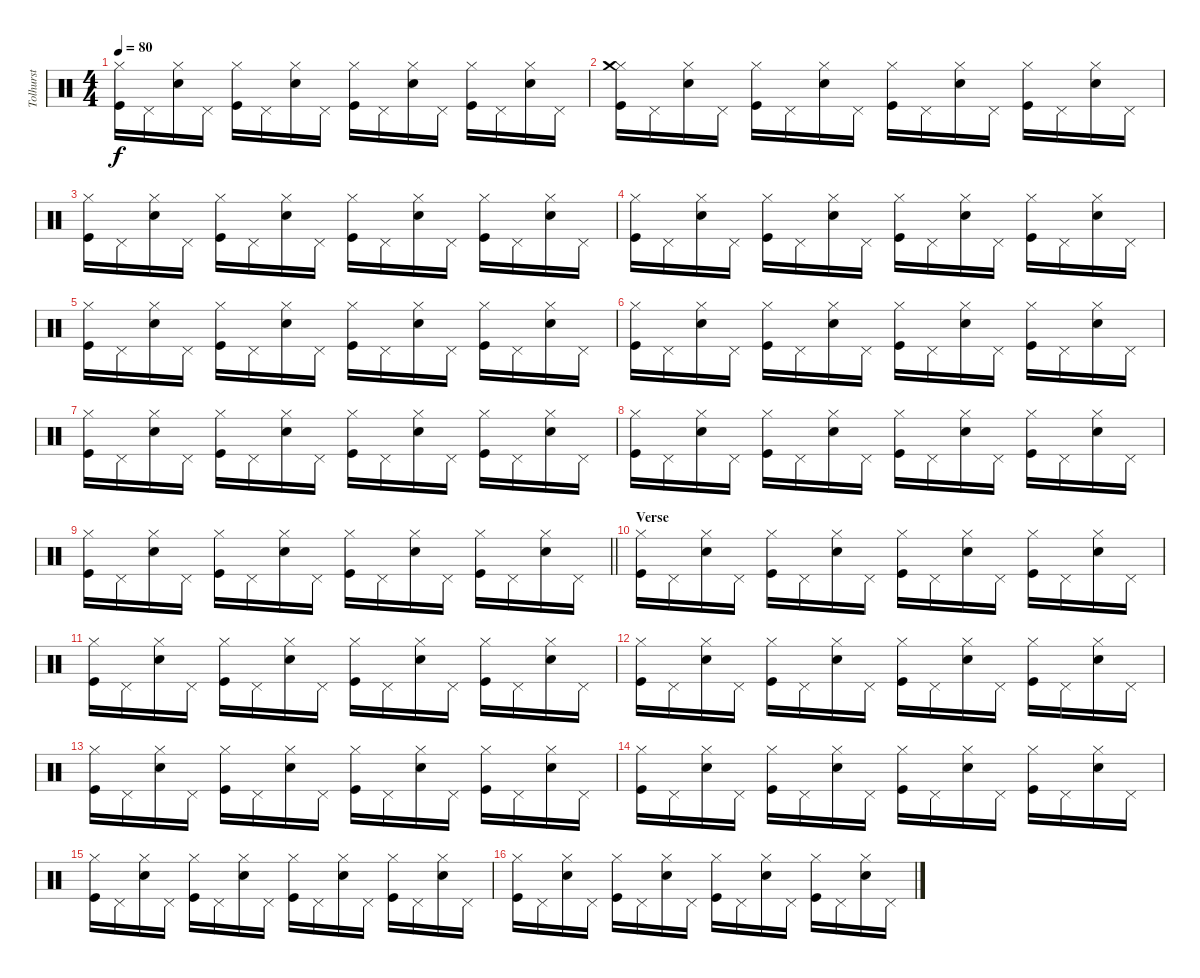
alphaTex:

\track ("Tolhurst" "Tolhurst") {instrument percussion}
\staff {score}
\articulation defaults
\ts (4 4)
\tempo 80
\clef neutral
\ks c
("Kick (hit)" "Hi-Hat (closed)").16{dy f} "Pedal Hi-Hat (hit)".16 ("Snare (hit) 2" "Hi-Hat (closed)").16 "Pedal Hi-Hat (hit)".16 ("Kick (hit)" "Hi-Hat (closed)").16 "Pedal Hi-Hat (hit)".16 ("Snare (hit) 2" "Hi-Hat (closed)").16 "Pedal Hi-Hat (hit)".16 ("Kick (hit)" "Hi-Hat (closed)").16 "Pedal Hi-Hat (hit)".16 ("Snare (hit) 2" "Hi-Hat (closed)").16 "Pedal Hi-Hat (hit)".16 ("Kick (hit)" "Hi-Hat (closed)").16 "Pedal Hi-Hat (hit)".16 ("Snare (hit) 2" "Hi-Hat (closed)").16 "Pedal Hi-Hat (hit)".16 |
("Kick (hit)" "Hi-Hat (closed)" "Crash medium (hit)").16 "Pedal Hi-Hat (hit)".16 ("Snare (hit) 2" "Hi-Hat (closed)").16 "Pedal Hi-Hat (hit)".16 ("Kick (hit)" "Hi-Hat (closed)").16 "Pedal Hi-Hat (hit)".16 ("Snare (hit) 2" "Hi-Hat (closed)").16 "Pedal Hi-Hat (hit)".16 ("Kick (hit)" "Hi-Hat (closed)").16 "Pedal Hi-Hat (hit)".16 ("Snare (hit) 2" "Hi-Hat (closed)").16 "Pedal Hi-Hat (hit)".16 ("Kick (hit)" "Hi-Hat (closed)").16 "Pedal Hi-Hat (hit)".16 ("Snare (hit) 2" "Hi-Hat (closed)").16 "Pedal Hi-Hat (hit)".16 |
("Kick (hit)" "Hi-Hat (closed)").16 "Pedal Hi-Hat (hit)".16 ("Snare (hit) 2" "Hi-Hat (closed)").16 "Pedal Hi-Hat (hit)".16 ("Kick (hit)" "Hi-Hat (closed)").16 "Pedal Hi-Hat (hit)".16 ("Snare (hit) 2" "Hi-Hat (closed)").16 "Pedal Hi-Hat (hit)".16 ("Kick (hit)" "Hi-Hat (closed)").16 "Pedal Hi-Hat (hit)".16 ("Snare (hit) 2" "Hi-Hat (closed)").16 "Pedal Hi-Hat (hit)".16 ("Kick (hit)" "Hi-Hat (closed)").16 "Pedal Hi-Hat (hit)".16 ("Snare (hit) 2" "Hi-Hat (closed)").16 "Pedal Hi-Hat (hit)".16 |
("Kick (hit)" "Hi-Hat (closed)").16 "Pedal Hi-Hat (hit)".16 ("Snare (hit) 2" "Hi-Hat (closed)").16 "Pedal Hi-Hat (hit)".16 ("Kick (hit)" "Hi-Hat (closed)").16 "Pedal Hi-Hat (hit)".16 ("Snare (hit) 2" "Hi-Hat (closed)").16 "Pedal Hi-Hat (hit)".16 ("Kick (hit)" "Hi-Hat (closed)").16 "Pedal Hi-Hat (hit)".16 ("Snare (hit) 2" "Hi-Hat (closed)").16 "Pedal Hi-Hat (hit)".16 ("Kick (hit)" "Hi-Hat (closed)").16 "Pedal Hi-Hat (hit)".16 ("Snare (hit) 2" "Hi-Hat (closed)").16 "Pedal Hi-Hat (hit)".16 |
("Kick (hit)" "Hi-Hat (closed)").16 "Pedal Hi-Hat (hit)".16 ("Snare (hit) 2" "Hi-Hat (closed)").16 "Pedal Hi-Hat (hit)".16 ("Kick (hit)" "Hi-Hat (closed)").16 "Pedal Hi-Hat (hit)".16 ("Snare (hit) 2" "Hi-Hat (closed)").16 "Pedal Hi-Hat (hit)".16 ("Kick (hit)" "Hi-Hat (closed)").16 "Pedal Hi-Hat (hit)".16 ("Snare (hit) 2" "Hi-Hat (closed)").16 "Pedal Hi-Hat (hit)".16 ("Kick (hit)" "Hi-Hat (closed)").16 "Pedal Hi-Hat (hit)".16 ("Snare (hit) 2" "Hi-Hat (closed)").16 "Pedal Hi-Hat (hit)".16 |
("Kick (hit)" "Hi-Hat (closed)").16 "Pedal Hi-Hat (hit)".16 ("Snare (hit) 2" "Hi-Hat (closed)").16 "Pedal Hi-Hat (hit)".16 ("Kick (hit)" "Hi-Hat (closed)").16 "Pedal Hi-Hat (hit)".16 ("Snare (hit) 2" "Hi-Hat (closed)").16 "Pedal Hi-Hat (hit)".16 ("Kick (hit)" "Hi-Hat (closed)").16 "Pedal Hi-Hat (hit)".16 ("Snare (hit) 2" "Hi-Hat (closed)").16 "Pedal Hi-Hat (hit)".16 ("Kick (hit)" "Hi-Hat (closed)").16 "Pedal Hi-Hat (hit)".16 ("Snare (hit) 2" "Hi-Hat (closed)").16 "Pedal Hi-Hat (hit)".16 |
("Kick (hit)" "Hi-Hat (closed)").16 "Pedal Hi-Hat (hit)".16 ("Snare (hit) 2" "Hi-Hat (closed)").16 "Pedal Hi-Hat (hit)".16 ("Kick (hit)" "Hi-Hat (closed)").16 "Pedal Hi-Hat (hit)".16 ("Snare (hit) 2" "Hi-Hat (closed)").16 "Pedal Hi-Hat (hit)".16 ("Kick (hit)" "Hi-Hat (closed)").16 "Pedal Hi-Hat (hit)".16 ("Snare (hit) 2" "Hi-Hat (closed)").16 "Pedal Hi-Hat (hit)".16 ("Kick (hit)" "Hi-Hat (closed)").16 "Pedal Hi-Hat (hit)".16 ("Snare (hit) 2" "Hi-Hat (closed)").16 "Pedal Hi-Hat (hit)".16 |
("Kick (hit)" "Hi-Hat (closed)").16 "Pedal Hi-Hat (hit)".16 ("Snare (hit) 2" "Hi-Hat (closed)").16 "Pedal Hi-Hat (hit)".16 ("Kick (hit)" "Hi-Hat (closed)").16 "Pedal Hi-Hat (hit)".16 ("Snare (hit) 2" "Hi-Hat (closed)").16 "Pedal Hi-Hat (hit)".16 ("Kick (hit)" "Hi-Hat (closed)").16 "Pedal Hi-Hat (hit)".16 ("Snare (hit) 2" "Hi-Hat (closed)").16 "Pedal Hi-Hat (hit)".16 ("Kick (hit)" "Hi-Hat (closed)").16 "Pedal Hi-Hat (hit)".16 ("Snare (hit) 2" "Hi-Hat (closed)").16 "Pedal Hi-Hat (hit)".16 |
\barLineRight lightlight
("Kick (hit)" "Hi-Hat (closed)").16 "Pedal Hi-Hat (hit)".16 ("Snare (hit) 2" "Hi-Hat (closed)").16 "Pedal Hi-Hat (hit)".16 ("Kick (hit)" "Hi-Hat (closed)").16 "Pedal Hi-Hat (hit)".16 ("Snare (hit) 2" "Hi-Hat (closed)").16 "Pedal Hi-Hat (hit)".16 ("Kick (hit)" "Hi-Hat (closed)").16 "Pedal Hi-Hat (hit)".16 ("Snare (hit) 2" "Hi-Hat (closed)").16 "Pedal Hi-Hat (hit)".16 ("Kick (hit)" "Hi-Hat (closed)").16 "Pedal Hi-Hat (hit)".16 ("Snare (hit) 2" "Hi-Hat (closed)").16 "Pedal Hi-Hat (hit)".16 |
\section ("" "Verse")
("Kick (hit)" "Hi-Hat (closed)").16 "Pedal Hi-Hat (hit)".16 ("Snare (hit) 2" "Hi-Hat (closed)").16 "Pedal Hi-Hat (hit)".16 ("Kick (hit)" "Hi-Hat (closed)").16 "Pedal Hi-Hat (hit)".16 ("Snare (hit) 2" "Hi-Hat (closed)").16 "Pedal Hi-Hat (hit)".16 ("Kick (hit)" "Hi-Hat (closed)").16 "Pedal Hi-Hat (hit)".16 ("Snare (hit) 2" "Hi-Hat (closed)").16 "Pedal Hi-Hat (hit)".16 ("Kick (hit)" "Hi-Hat (closed)").16 "Pedal Hi-Hat (hit)".16 ("Snare (hit) 2" "Hi-Hat (closed)").16 "Pedal Hi-Hat (hit)".16 |
("Kick (hit)" "Hi-Hat (closed)").16 "Pedal Hi-Hat (hit)".16 ("Snare (hit) 2" "Hi-Hat (closed)").16 "Pedal Hi-Hat (hit)".16 ("Kick (hit)" "Hi-Hat (closed)").16 "Pedal Hi-Hat (hit)".16 ("Snare (hit) 2" "Hi-Hat (closed)").16 "Pedal Hi-Hat (hit)".16 ("Kick (hit)" "Hi-Hat (closed)").16 "Pedal Hi-Hat (hit)".16 ("Snare (hit) 2" "Hi-Hat (closed)").16 "Pedal Hi-Hat (hit)".16 ("Kick (hit)" "Hi-Hat (closed)").16 "Pedal Hi-Hat (hit)".16 ("Snare (hit) 2" "Hi-Hat (closed)").16 "Pedal Hi-Hat (hit)".16 |
("Kick (hit)" "Hi-Hat (closed)").16 "Pedal Hi-Hat (hit)".16 ("Snare (hit) 2" "Hi-Hat (closed)").16 "Pedal Hi-Hat (hit)".16 ("Kick (hit)" "Hi-Hat (closed)").16 "Pedal Hi-Hat (hit)".16 ("Snare (hit) 2" "Hi-Hat (closed)").16 "Pedal Hi-Hat (hit)".16 ("Kick (hit)" "Hi-Hat (closed)").16 "Pedal Hi-Hat (hit)".16 ("Snare (hit) 2" "Hi-Hat (closed)").16 "Pedal Hi-Hat (hit)".16 ("Kick (hit)" "Hi-Hat (closed)").16 "Pedal Hi-Hat (hit)".16 ("Snare (hit) 2" "Hi-Hat (closed)").16 "Pedal Hi-Hat (hit)".16 |
("Kick (hit)" "Hi-Hat (closed)").16 "Pedal Hi-Hat (hit)".16 ("Snare (hit) 2" "Hi-Hat (closed)").16 "Pedal Hi-Hat (hit)".16 ("Kick (hit)" "Hi-Hat (closed)").16 "Pedal Hi-Hat (hit)".16 ("Snare (hit) 2" "Hi-Hat (closed)").16 "Pedal Hi-Hat (hit)".16 ("Kick (hit)" "Hi-Hat (closed)").16 "Pedal Hi-Hat (hit)".16 ("Snare (hit) 2" "Hi-Hat (closed)").16 "Pedal Hi-Hat (hit)".16 ("Kick (hit)" "Hi-Hat (closed)").16 "Pedal Hi-Hat (hit)".16 ("Snare (hit) 2" "Hi-Hat (closed)").16 "Pedal Hi-Hat (hit)".16 |
("Kick (hit)" "Hi-Hat (closed)").16 "Pedal Hi-Hat (hit)".16 ("Snare (hit) 2" "Hi-Hat (closed)").16 "Pedal Hi-Hat (hit)".16 ("Kick (hit)" "Hi-Hat (closed)").16 "Pedal Hi-Hat (hit)".16 ("Snare (hit) 2" "Hi-Hat (closed)").16 "Pedal Hi-Hat (hit)".16 ("Kick (hit)" "Hi-Hat (closed)").16 "Pedal Hi-Hat (hit)".16 ("Snare (hit) 2" "Hi-Hat (closed)").16 "Pedal Hi-Hat (hit)".16 ("Kick (hit)" "Hi-Hat (closed)").16 "Pedal Hi-Hat (hit)".16 ("Snare (hit) 2" "Hi-Hat (closed)").16 "Pedal Hi-Hat (hit)".16 |
("Kick (hit)" "Hi-Hat (closed)").16 "Pedal Hi-Hat (hit)".16 ("Snare (hit) 2" "Hi-Hat (closed)").16 "Pedal Hi-Hat (hit)".16 ("Kick (hit)" "Hi-Hat (closed)").16 "Pedal Hi-Hat (hit)".16 ("Snare (hit) 2" "Hi-Hat (closed)").16 "Pedal Hi-Hat (hit)".16 ("Kick (hit)" "Hi-Hat (closed)").16 "Pedal Hi-Hat (hit)".16 ("Snare (hit) 2" "Hi-Hat (closed)").16 "Pedal Hi-Hat (hit)".16 ("Kick (hit)" "Hi-Hat (closed)").16 "Pedal Hi-Hat (hit)".16 ("Snare (hit) 2" "Hi-Hat (closed)").16 "Pedal Hi-Hat (hit)".16 |
("Kick (hit)" "Hi-Hat (closed)").16 "Pedal Hi-Hat (hit)".16 ("Snare (hit) 2" "Hi-Hat (closed)").16 "Pedal Hi-Hat (hit)".16 ("Kick (hit)" "Hi-Hat (closed)").16 "Pedal Hi-Hat (hit)".16 ("Snare (hit) 2" "Hi-Hat (closed)").16 "Pedal Hi-Hat (hit)".16 ("Kick (hit)" "Hi-Hat (closed)").16 "Pedal Hi-Hat (hit)".16 ("Snare (hit) 2" "Hi-Hat (closed)").16 "Pedal Hi-Hat (hit)".16 ("Kick (hit)" "Hi-Hat (closed)").16 "Pedal Hi-Hat (hit)".16 ("Snare (hit) 2" "Hi-Hat (closed)").16 "Pedal Hi-Hat (hit)".16
